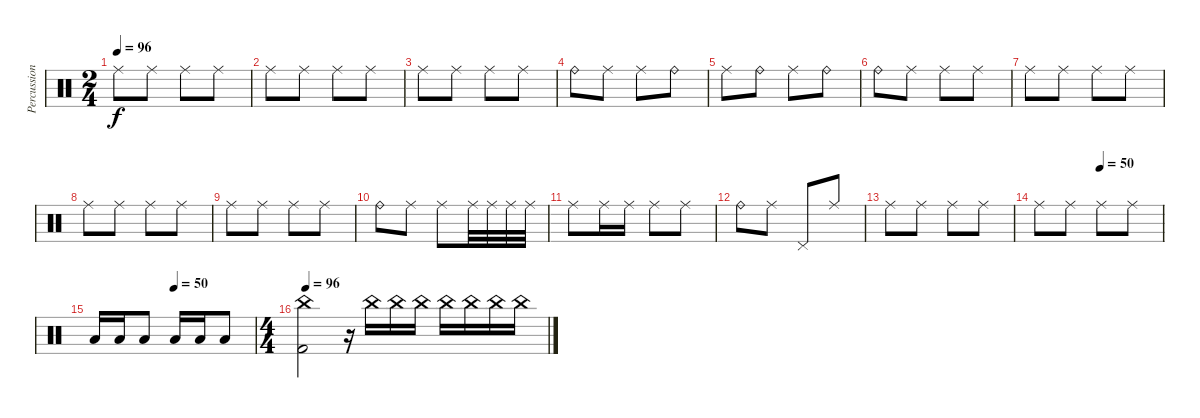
\track ("Percussion" "Percussion") {instrument percussion}
\staff {score}
\articulation defaults
\ts (2 4)
\tempo 96
\clef neutral
\ks c "Ride (middle)".8{dy f} "Ride (middle)".8 "Ride (middle)".8 "Ride (middle)".8
|
"Ride (middle)".8 "Ride (middle)".8 "Ride (middle)".8 "Ride (middle)".8 |
"Ride (middle)".8 "Ride (middle)".8 "Ride (middle)".8 "Ride (middle)".8 |
"Ride (bell)".8 "Ride (middle)".8 "Ride (middle)".8 "Ride (bell)".8 |
"Ride (middle)".8 "Ride (bell)".8 "Ride (middle)".8 "Ride (bell)".8 |
"Ride (bell)".8 "Ride (middle)".8 "Ride (middle)".8 "Ride (middle)".8 |
"Ride (middle)".8 "Ride (middle)".8 "Ride (middle)".8 "Ride (middle)".8 |
"Ride (middle)".8 "Ride (middle)".8 "Ride (middle)".8 "Ride (middle)".8 |
"Ride (middle)".8 "Ride (middle)".8 "Ride (middle)".8 "Ride (middle)".8 |
"Ride (bell)".8 "Ride (middle)".8 "Ride (middle)".8 "Ride (middle)".32 "Ride (middle)".32 "Ride (middle)".32 "Ride (middle)".32 |
"Ride (middle)".8 "Ride (middle)".16 "Ride (middle)".16 "Ride (middle)".8 "Ride (middle)".8 |
"Ride (bell)".8 "Ride (middle)".8 "Pedal Hi-Hat (hit)".8 "Ride (middle)".8 |
"Ride (middle)".8 "Ride (middle)".8 "Ride (middle)".8 "Ride (middle)".8 |
\tempo (50 0.5)
"Ride (middle)".8 "Ride (middle)".8 "Ride (middle)".8 "Ride (middle)".8 |
\tempo (50 0.5)
"Low Tom (hit)".16 "Low Tom (hit)".16 "Low Tom (hit)".8 "Low Floor Tom (hit)".16 "Low Floor Tom (hit)".16 "Low Floor Tom (hit)".8 |
\ts (4 4)
\tempo 96
("China (hit)" "Kick (hit) 2").2 r.16{volume 0} "China (hit)".16{volume 11} "China (hit)".16 "China (hit)".16 "China (hit)".16 "China (hit)".16 "China (hit)".16 "China (hit)".16
